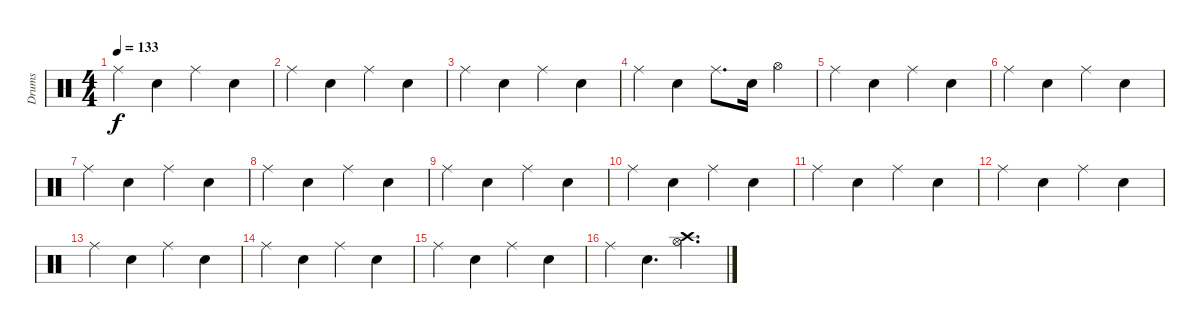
\track ("Drums" "Drums") {instrument percussion}
\staff {score}
\articulation defaults
\ts (4 4)
\tempo 133
\clef neutral
\ks c "Ride (middle)".4{dy f} "Hand Clap (hit)".4 "Ride (middle)".4 "Hand Clap (hit)".4
|
"Ride (middle)".4 "Hand Clap (hit)".4 "Ride (middle)".4 "Hand Clap (hit)".4 |
"Ride (middle)".4 "Hand Clap (hit)".4 "Ride (middle)".4 "Hand Clap (hit)".4 |
"Ride (middle)".4 "Hand Clap (hit)".4 "Ride (middle)".8{d} "Hand Clap (hit)".16 "Hi-Hat (open)".4 |
"Ride (middle)".4 "Hand Clap (hit)".4 "Ride (middle)".4 "Hand Clap (hit)".4 |
"Ride (middle)".4 "Hand Clap (hit)".4 "Ride (middle)".4 "Hand Clap (hit)".4 |
"Ride (middle)".4 "Hand Clap (hit)".4 "Ride (middle)".4 "Hand Clap (hit)".4 |
"Ride (middle)".4 "Hand Clap (hit)".4 "Ride (middle)".4 "Hand Clap (hit)".4 |
"Ride (middle)".4 "Hand Clap (hit)".4 "Ride (middle)".4 "Hand Clap (hit)".4 |
"Ride (middle)".4 "Hand Clap (hit)".4 "Ride (middle)".4 "Hand Clap (hit)".4 |
"Ride (middle)".4 "Hand Clap (hit)".4 "Ride (middle)".4 "Hand Clap (hit)".4 |
"Ride (middle)".4 "Hand Clap (hit)".4 "Ride (middle)".4 "Hand Clap (hit)".4 |
"Ride (middle)".4 "Hand Clap (hit)".4 "Ride (middle)".4 "Hand Clap (hit)".4 |
"Ride (middle)".4 "Hand Clap (hit)".4 "Ride (middle)".4 "Hand Clap (hit)".4 |
"Ride (middle)".4 "Hand Clap (hit)".4 "Ride (middle)".4 "Hand Clap (hit)".4 |
"Ride (middle)".4 "Hand Clap (hit)".4{d} ("Hi-Hat (open)" "Crash high (hit)").4{d}
